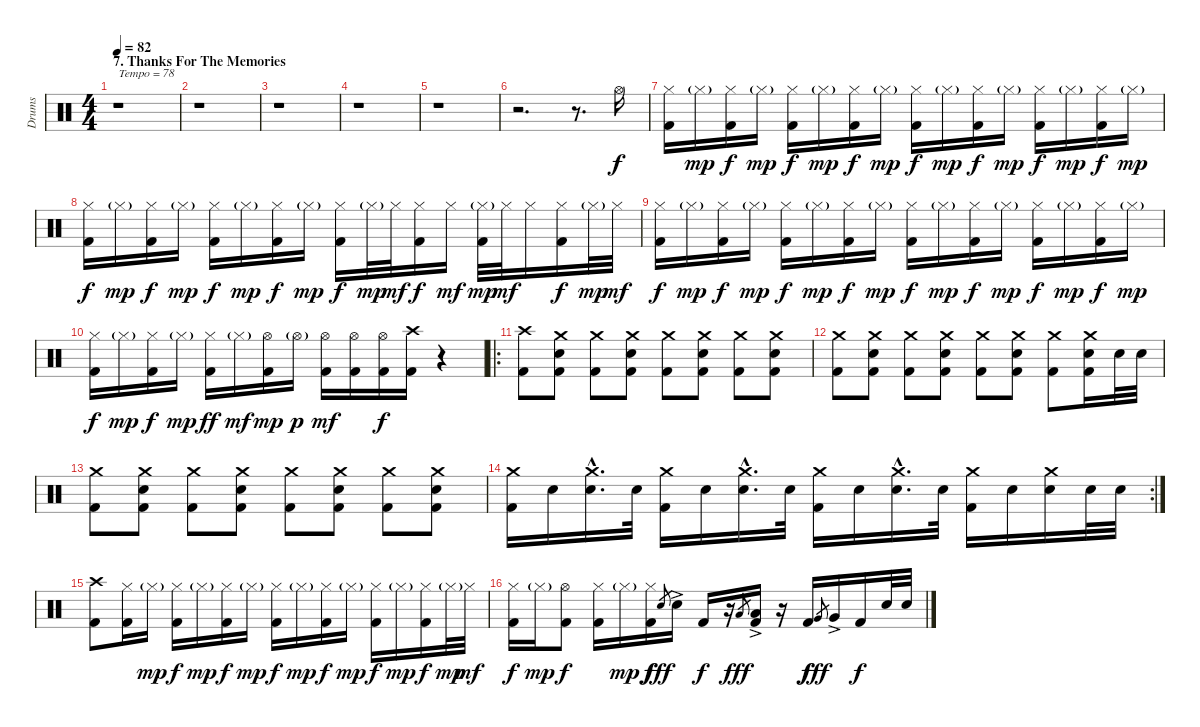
\track ("Drums" "Drums") {instrument percussion}
\staff {score}
\articulation defaults
\ts (4 4)
\section ("" "7. Thanks For The Memories")
\tempo 82
\tempo 78
\tempo 82
\clef neutral
\ks c
r.1{txt "Tempo = 78" dy f} |
r.1 |
r.1 |
r.1 |
r.1 |
r.2{d} r.8{d} "Hi-Hat (open)".16 |
("Hi-Hat (closed)" "Kick (hit) 2").16 "Hi-Hat (closed)"{g}.16{dy mp} ("Hi-Hat (closed)" "Kick (hit) 2").16{dy f} "Hi-Hat (closed)"{g}.16{dy mp} ("Hi-Hat (closed)" "Kick (hit) 2").16{dy f} "Hi-Hat (closed)"{g}.16{dy mp} ("Hi-Hat (closed)" "Kick (hit) 2").16{dy f} "Hi-Hat (closed)"{g}.16{dy mp} ("Hi-Hat (closed)" "Kick (hit) 2").16{dy f} "Hi-Hat (closed)"{g}.16{dy mp} ("Hi-Hat (closed)" "Kick (hit) 2").16{dy f} "Hi-Hat (closed)"{g}.16{dy mp} ("Hi-Hat (closed)" "Kick (hit) 2").16{dy f} "Hi-Hat (closed)"{g}.16{dy mp} ("Hi-Hat (closed)" "Kick (hit) 2").16{dy f} "Hi-Hat (closed)"{g}.16{dy mp} |
("Hi-Hat (closed)" "Kick (hit) 2").16{dy f} "Hi-Hat (closed)"{g}.16{dy mp} ("Hi-Hat (closed)" "Kick (hit) 2").16{dy f} "Hi-Hat (closed)"{g}.16{dy mp} ("Hi-Hat (closed)" "Kick (hit) 2").16{dy f} "Hi-Hat (closed)"{g}.16{dy mp} ("Hi-Hat (closed)" "Kick (hit) 2").16{dy f} "Hi-Hat (closed)"{g}.16{dy mp} ("Hi-Hat (closed)" "Kick (hit) 2").16{dy f} "Hi-Hat (closed)"{g}.32{dy mp} "Hi-Hat (closed)".32{dy mf} ("Hi-Hat (closed)" "Kick (hit) 2").16{dy f} "Hi-Hat (closed)".16{dy mf} ("Hi-Hat (closed)"{g} "Kick (hit) 2").32{dy mp} "Hi-Hat (closed)".32{dy mf} "Hi-Hat (closed)".16 ("Hi-Hat (closed)" "Kick (hit) 2").16{dy f} "Hi-Hat (closed)"{g}.32{dy mp} "Hi-Hat (closed)".32{dy mf} |
("Hi-Hat (closed)" "Kick (hit) 2").16{dy f} "Hi-Hat (closed)"{g}.16{dy mp} ("Hi-Hat (closed)" "Kick (hit) 2").16{dy f} "Hi-Hat (closed)"{g}.16{dy mp} ("Hi-Hat (closed)" "Kick (hit) 2").16{dy f} "Hi-Hat (closed)"{g}.16{dy mp} ("Hi-Hat (closed)" "Kick (hit) 2").16{dy f} "Hi-Hat (closed)"{g}.16{dy mp} ("Hi-Hat (closed)" "Kick (hit) 2").16{dy f} "Hi-Hat (closed)"{g}.16{dy mp} ("Hi-Hat (closed)" "Kick (hit) 2").16{dy f} "Hi-Hat (closed)"{g}.16{dy mp} ("Hi-Hat (closed)" "Kick (hit) 2").16{dy f} "Hi-Hat (closed)"{g}.16{dy mp} ("Hi-Hat (closed)" "Kick (hit) 2").16{dy f} "Hi-Hat (closed)"{g}.16{dy mp} |
("Hi-Hat (closed)" "Kick (hit) 2").16{dy f} "Hi-Hat (closed)"{g}.16{dy mp} ("Hi-Hat (closed)" "Kick (hit) 2").16{dy f} "Hi-Hat (closed)"{g}.16{dy mp} ("Hi-Hat (closed)" "Kick (hit) 2").16{dy ff} "Hi-Hat (closed)"{g}.16{dy mf} ("Hi-Hat (open)" "Kick (hit) 2").16{dy mp} "Hi-Hat (open)"{g}.16{dy p} ("Hi-Hat (open)" "Kick (hit) 2").16{dy mf} ("Hi-Hat (open)" "Kick (hit) 2").16 ("Hi-Hat (open)" "Kick (hit) 2").16{dy f} ("Crash high (hit)" "Kick (hit) 2").16 r.4 |
\ro
("Crash high (hit)" "Kick (hit) 2").8 ("Crash medium (hit)" "Snare (hit) 2" "Kick (hit) 2").8 ("Crash medium (hit)" "Kick (hit) 2").8 ("Crash medium (hit)" "Snare (hit) 2" "Kick (hit) 2").8 ("Crash medium (hit)" "Kick (hit) 2").8 ("Crash medium (hit)" "Snare (hit) 2" "Kick (hit) 2").8 ("Crash medium (hit)" "Kick (hit) 2").8 ("Crash medium (hit)" "Snare (hit) 2" "Kick (hit) 2").8 |
("Crash medium (hit)" "Kick (hit) 2").8 ("Crash medium (hit)" "Snare (hit) 2" "Kick (hit) 2").8 ("Crash medium (hit)" "Kick (hit) 2").8 ("Crash medium (hit)" "Snare (hit) 2" "Kick (hit) 2").8 ("Crash medium (hit)" "Kick (hit) 2").8 ("Crash medium (hit)" "Snare (hit) 2" "Kick (hit) 2").8 ("Crash medium (hit)" "Kick (hit) 2").8 ("Crash medium (hit)" "Snare (hit) 2" "Kick (hit) 2").16 "Snare (hit) 2".32 "Snare (hit) 2".32 |
("Crash medium (hit)" "Kick (hit) 2").8 ("Crash medium (hit)" "Snare (hit) 2" "Kick (hit) 2").8 ("Crash medium (hit)" "Kick (hit) 2").8 ("Crash medium (hit)" "Snare (hit) 2" "Kick (hit) 2").8 ("Crash medium (hit)" "Kick (hit) 2").8 ("Crash medium (hit)" "Snare (hit) 2" "Kick (hit) 2").8 ("Crash medium (hit)" "Kick (hit) 2").8 ("Crash medium (hit)" "Snare (hit) 2" "Kick (hit) 2").8 |
\rc 2
("Crash medium (hit)" "Kick (hit) 2").16 "Snare (hit) 2".16 ("Crash medium (hit)"{hac} "Snare (hit) 2"{hac}).16{d} "Snare (hit) 2".32 ("Crash medium (hit)" "Kick (hit) 2").16 "Snare (hit) 2".16 ("Crash medium (hit)"{hac} "Snare (hit) 2"{hac}).16{d} "Snare (hit) 2".32 ("Crash medium (hit)" "Kick (hit) 2").16 "Snare (hit) 2".16 ("Crash medium (hit)"{hac} "Snare (hit) 2"{hac}).16{d} "Snare (hit) 2".32 ("Crash medium (hit)" "Kick (hit) 2").16 "Snare (hit) 2".16 ("Crash medium (hit)" "Snare (hit) 2").16 "Snare (hit) 2".32 "Snare (hit) 2".32 |
("Crash high (hit)" "Kick (hit) 2").8 ("Hi-Hat (closed)" "Kick (hit) 2").16 "Hi-Hat (closed)"{g}.16{dy mp} ("Hi-Hat (closed)" "Kick (hit) 2").16{dy f} "Hi-Hat (closed)"{g}.16{dy mp} ("Hi-Hat (closed)" "Kick (hit) 2").16{dy f} "Hi-Hat (closed)"{g}.16{dy mp} ("Hi-Hat (closed)" "Kick (hit) 2").16{dy f} "Hi-Hat (closed)"{g}.16{dy mp} ("Hi-Hat (closed)" "Kick (hit) 2").16{dy f} "Hi-Hat (closed)"{g}.16{dy mp} ("Hi-Hat (closed)" "Kick (hit) 2").16{dy f} "Hi-Hat (closed)"{g}.16{dy mp} ("Hi-Hat (closed)" "Kick (hit) 2").16{dy f} "Hi-Hat (closed)"{g}.32{dy mp} "Hi-Hat (closed)".32{dy mf} |
("Hi-Hat (closed)" "Kick (hit) 2").16{dy f} "Hi-Hat (closed)"{g}.16{dy mp} ("Hi-Hat (open)" "Kick (hit) 2").8{dy f} ("Hi-Hat (closed)" "Kick (hit) 2").16 "Hi-Hat (closed)"{g}.16{dy mp} ("Hi-Hat (closed)" "Kick (hit) 2").16{dy f} "Snare (hit) 2".8{gr dy fff} "Snare (hit) 2"{ac}.16 "Kick (hit) 2".16{dy f} r.16 "Low Tom (hit)".8{gr dy fff} ("Low Tom (hit)"{ac} "Kick (hit) 2").16 r.16 "Kick (hit) 2".16{dy f} "Very Low Tom (hit)".8{gr dy fff} "Very Low Tom (hit)"{ac}.16 "Kick (hit) 2".16{dy f} "Snare (hit) 2".32 "Snare (hit) 2".32
